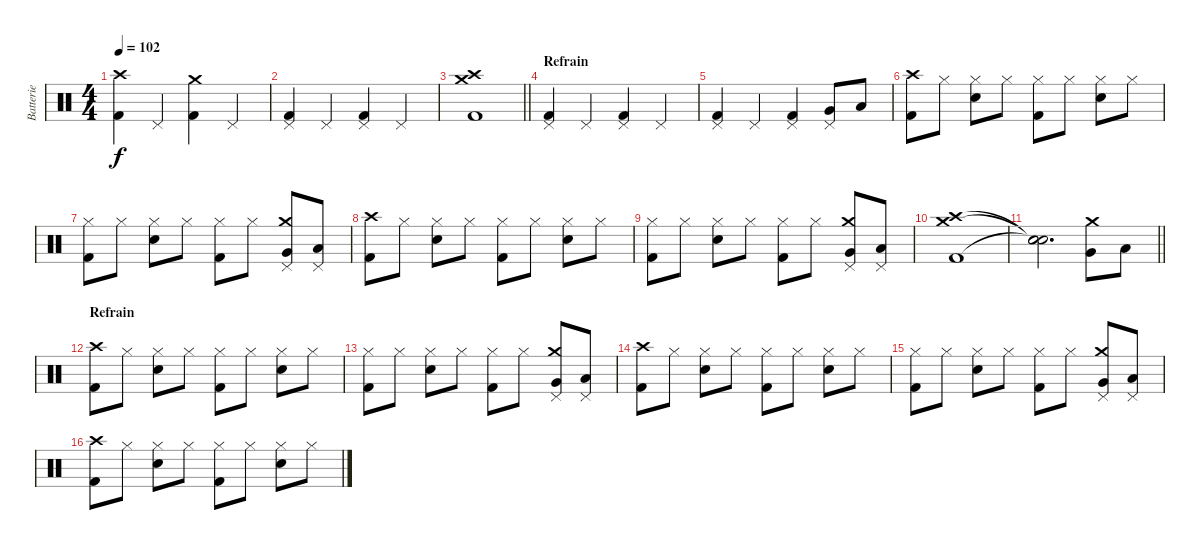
\track ("Batterie" "Batterie") {instrument percussion}
\staff {score}
\articulation defaults
\ts (4 4)
\tempo 102
\clef neutral
\ks c
("Crash high (hit)" "Kick (hit) 2").4{dy f} "Pedal Hi-Hat (hit)".4 ("Crash medium (hit)" "Kick (hit) 2").4 "Pedal Hi-Hat (hit)".4 |
("Pedal Hi-Hat (hit)" "Kick (hit) 2").4 "Pedal Hi-Hat (hit)".4 ("Pedal Hi-Hat (hit)" "Kick (hit) 2").4 "Pedal Hi-Hat (hit)".4 |
\barLineRight lightlight
("Crash medium (hit)" "Crash high (hit)" "Kick (hit) 2").1 |
\section ("" "Refrain")
("Pedal Hi-Hat (hit)" "Kick (hit) 2").4 "Pedal Hi-Hat (hit)".4 ("Pedal Hi-Hat (hit)" "Kick (hit) 2").4 "Pedal Hi-Hat (hit)".4 |
("Pedal Hi-Hat (hit)" "Kick (hit) 2").4 "Pedal Hi-Hat (hit)".4 ("Pedal Hi-Hat (hit)" "Kick (hit) 2").4 ("Pedal Hi-Hat (hit)" "Very Low Tom (hit)").8 "Low Floor Tom (hit)".8 |
("Crash high (hit)" "Kick (hit) 2").8 "Hi-Hat (closed)".8 ("Hi-Hat (closed)" "Snare (hit) 2").8 "Hi-Hat (closed)".8 ("Hi-Hat (closed)" "Kick (hit) 2").8 "Hi-Hat (closed)".8 ("Hi-Hat (closed)" "Snare (hit) 2").8 "Hi-Hat (closed)".8 |
("Hi-Hat (closed)" "Kick (hit) 2").8 "Hi-Hat (closed)".8 ("Hi-Hat (closed)" "Snare (hit) 2").8 "Hi-Hat (closed)".8 ("Hi-Hat (closed)" "Kick (hit) 2").8 "Hi-Hat (closed)".8 ("Pedal Hi-Hat (hit)" "Crash medium (hit)" "Very Low Tom (hit)").8 ("Pedal Hi-Hat (hit)" "Low Floor Tom (hit)").8 |
("Crash high (hit)" "Kick (hit) 2").8 "Hi-Hat (closed)".8 ("Hi-Hat (closed)" "Snare (hit) 2").8 "Hi-Hat (closed)".8 ("Hi-Hat (closed)" "Kick (hit) 2").8 "Hi-Hat (closed)".8 ("Hi-Hat (closed)" "Snare (hit) 2").8 "Hi-Hat (closed)".8 |
("Hi-Hat (closed)" "Kick (hit) 2").8 "Hi-Hat (closed)".8 ("Hi-Hat (closed)" "Snare (hit) 2").8 "Hi-Hat (closed)".8 ("Hi-Hat (closed)" "Kick (hit) 2").8 "Hi-Hat (closed)".8 ("Pedal Hi-Hat (hit)" "Crash medium (hit)" "Very Low Tom (hit)").8 ("Pedal Hi-Hat (hit)" "Low Floor Tom (hit)").8 |
("Crash medium (hit)" "Crash high (hit)" "Kick (hit) 2").1 |
\barLineRight lightlight
("Snare (hit)"{t} "Snare (hit)"{t} "Snare (hit)"{t}).2{d} ("Crash medium (hit)" "Very Low Tom (hit)").8 "Low Floor Tom (hit)".8 |
\section ("" "Refrain")
("Crash high (hit)" "Kick (hit) 2").8 "Hi-Hat (closed)".8 ("Hi-Hat (closed)" "Snare (hit) 2").8 "Hi-Hat (closed)".8 ("Hi-Hat (closed)" "Kick (hit) 2").8 "Hi-Hat (closed)".8 ("Hi-Hat (closed)" "Snare (hit) 2").8 "Hi-Hat (closed)".8 |
("Hi-Hat (closed)" "Kick (hit) 2").8 "Hi-Hat (closed)".8 ("Hi-Hat (closed)" "Snare (hit) 2").8 "Hi-Hat (closed)".8 ("Hi-Hat (closed)" "Kick (hit) 2").8 "Hi-Hat (closed)".8 ("Pedal Hi-Hat (hit)" "Crash medium (hit)" "Very Low Tom (hit)").8 ("Pedal Hi-Hat (hit)" "Low Floor Tom (hit)").8 |
("Crash high (hit)" "Kick (hit) 2").8 "Hi-Hat (closed)".8 ("Hi-Hat (closed)" "Snare (hit) 2").8 "Hi-Hat (closed)".8 ("Hi-Hat (closed)" "Kick (hit) 2").8 "Hi-Hat (closed)".8 ("Hi-Hat (closed)" "Snare (hit) 2").8 "Hi-Hat (closed)".8 |
("Hi-Hat (closed)" "Kick (hit) 2").8 "Hi-Hat (closed)".8 ("Hi-Hat (closed)" "Snare (hit) 2").8 "Hi-Hat (closed)".8 ("Hi-Hat (closed)" "Kick (hit) 2").8 "Hi-Hat (closed)".8 ("Pedal Hi-Hat (hit)" "Crash medium (hit)" "Very Low Tom (hit)").8 ("Pedal Hi-Hat (hit)" "Low Floor Tom (hit)").8 |
("Crash high (hit)" "Kick (hit) 2").8 "Hi-Hat (closed)".8 ("Hi-Hat (closed)" "Snare (hit) 2").8 "Hi-Hat (closed)".8 ("Hi-Hat (closed)" "Kick (hit) 2").8 "Hi-Hat (closed)".8 ("Hi-Hat (closed)" "Snare (hit) 2").8 "Hi-Hat (closed)".8
